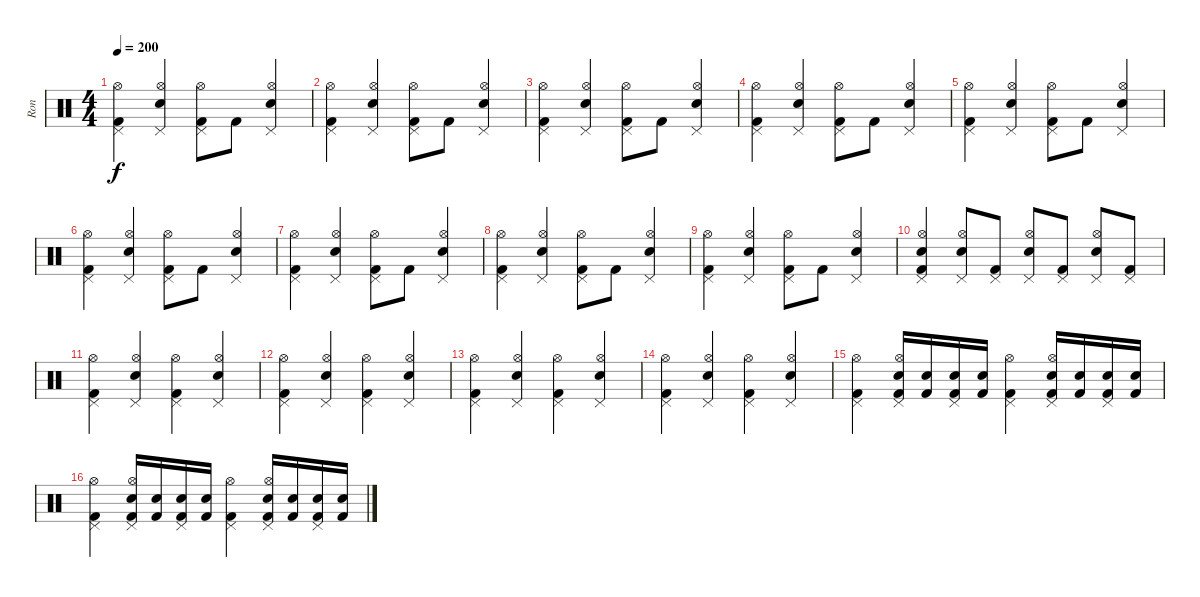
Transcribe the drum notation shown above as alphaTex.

\track ("Ron" "Ron") {instrument percussion}
\staff {score}
\articulation defaults
\ts (4 4)
\tempo 200
\clef neutral
\ks c
("Pedal Hi-Hat (hit)" "Kick (hit) 2" "Hi-Hat (open)").4{dy f} ("Electric Snare (hit)" "Pedal Hi-Hat (hit)" "Hi-Hat (open)").4 ("Pedal Hi-Hat (hit)" "Kick (hit) 2" "Hi-Hat (open)").8 "Kick (hit) 2".8 ("Electric Snare (hit)" "Pedal Hi-Hat (hit)" "Hi-Hat (open)").4 |
("Pedal Hi-Hat (hit)" "Kick (hit) 2" "Hi-Hat (open)").4 ("Electric Snare (hit)" "Pedal Hi-Hat (hit)" "Hi-Hat (open)").4 ("Pedal Hi-Hat (hit)" "Kick (hit) 2" "Hi-Hat (open)").8 "Kick (hit) 2".8 ("Electric Snare (hit)" "Pedal Hi-Hat (hit)" "Hi-Hat (open)").4 |
("Pedal Hi-Hat (hit)" "Kick (hit) 2" "Hi-Hat (open)").4 ("Electric Snare (hit)" "Pedal Hi-Hat (hit)" "Hi-Hat (open)").4 ("Pedal Hi-Hat (hit)" "Kick (hit) 2" "Hi-Hat (open)").8 "Kick (hit) 2".8 ("Electric Snare (hit)" "Pedal Hi-Hat (hit)" "Hi-Hat (open)").4 |
("Pedal Hi-Hat (hit)" "Kick (hit) 2" "Hi-Hat (open)").4 ("Electric Snare (hit)" "Pedal Hi-Hat (hit)" "Hi-Hat (open)").4 ("Pedal Hi-Hat (hit)" "Kick (hit) 2" "Hi-Hat (open)").8 "Kick (hit) 2".8 ("Electric Snare (hit)" "Pedal Hi-Hat (hit)" "Hi-Hat (open)").4 |
("Pedal Hi-Hat (hit)" "Kick (hit) 2" "Hi-Hat (open)").4 ("Electric Snare (hit)" "Pedal Hi-Hat (hit)" "Hi-Hat (open)").4 ("Pedal Hi-Hat (hit)" "Kick (hit) 2" "Hi-Hat (open)").8 "Kick (hit) 2".8 ("Electric Snare (hit)" "Pedal Hi-Hat (hit)" "Hi-Hat (open)").4 |
("Pedal Hi-Hat (hit)" "Kick (hit) 2" "Hi-Hat (open)").4 ("Electric Snare (hit)" "Pedal Hi-Hat (hit)" "Hi-Hat (open)").4 ("Pedal Hi-Hat (hit)" "Kick (hit) 2" "Hi-Hat (open)").8 "Kick (hit) 2".8 ("Electric Snare (hit)" "Pedal Hi-Hat (hit)" "Hi-Hat (open)").4 |
("Pedal Hi-Hat (hit)" "Kick (hit) 2" "Hi-Hat (open)").4 ("Electric Snare (hit)" "Pedal Hi-Hat (hit)" "Hi-Hat (open)").4 ("Pedal Hi-Hat (hit)" "Kick (hit) 2" "Hi-Hat (open)").8 "Kick (hit) 2".8 ("Electric Snare (hit)" "Pedal Hi-Hat (hit)" "Hi-Hat (open)").4 |
("Pedal Hi-Hat (hit)" "Kick (hit) 2" "Hi-Hat (open)").4 ("Electric Snare (hit)" "Pedal Hi-Hat (hit)" "Hi-Hat (open)").4 ("Pedal Hi-Hat (hit)" "Kick (hit) 2" "Hi-Hat (open)").8 "Kick (hit) 2".8 ("Electric Snare (hit)" "Pedal Hi-Hat (hit)" "Hi-Hat (open)").4 |
("Pedal Hi-Hat (hit)" "Kick (hit) 2" "Hi-Hat (open)").4 ("Electric Snare (hit)" "Pedal Hi-Hat (hit)" "Hi-Hat (open)").4 ("Pedal Hi-Hat (hit)" "Kick (hit) 2" "Hi-Hat (open)").8 "Kick (hit) 2".8 ("Electric Snare (hit)" "Pedal Hi-Hat (hit)" "Hi-Hat (open)").4 |
("Electric Snare (hit)" "Kick (hit) 2" "Pedal Hi-Hat (hit)" "Hi-Hat (open)").4 ("Electric Snare (hit)" "Pedal Hi-Hat (hit)" "Hi-Hat (open)").8 ("Kick (hit) 2" "Pedal Hi-Hat (hit)").8 ("Electric Snare (hit)" "Pedal Hi-Hat (hit)" "Hi-Hat (open)").8 ("Kick (hit) 2" "Pedal Hi-Hat (hit)").8 ("Electric Snare (hit)" "Pedal Hi-Hat (hit)" "Hi-Hat (open)").8 ("Kick (hit) 2" "Pedal Hi-Hat (hit)").8 |
("Pedal Hi-Hat (hit)" "Kick (hit) 2" "Hi-Hat (open)").4 ("Pedal Hi-Hat (hit)" "Electric Snare (hit)" "Hi-Hat (open)").4 ("Pedal Hi-Hat (hit)" "Kick (hit) 2" "Hi-Hat (open)").4 ("Pedal Hi-Hat (hit)" "Electric Snare (hit)" "Hi-Hat (open)").4 |
("Pedal Hi-Hat (hit)" "Kick (hit) 2" "Hi-Hat (open)").4 ("Pedal Hi-Hat (hit)" "Electric Snare (hit)" "Hi-Hat (open)").4 ("Pedal Hi-Hat (hit)" "Kick (hit) 2" "Hi-Hat (open)").4 ("Pedal Hi-Hat (hit)" "Electric Snare (hit)" "Hi-Hat (open)").4 |
("Pedal Hi-Hat (hit)" "Kick (hit) 2" "Hi-Hat (open)").4 ("Pedal Hi-Hat (hit)" "Electric Snare (hit)" "Hi-Hat (open)").4 ("Pedal Hi-Hat (hit)" "Kick (hit) 2" "Hi-Hat (open)").4 ("Pedal Hi-Hat (hit)" "Electric Snare (hit)" "Hi-Hat (open)").4 |
("Pedal Hi-Hat (hit)" "Kick (hit) 2" "Hi-Hat (open)").4 ("Pedal Hi-Hat (hit)" "Electric Snare (hit)" "Hi-Hat (open)").4 ("Pedal Hi-Hat (hit)" "Kick (hit) 2" "Hi-Hat (open)").4 ("Pedal Hi-Hat (hit)" "Electric Snare (hit)" "Hi-Hat (open)").4 |
("Pedal Hi-Hat (hit)" "Kick (hit) 2" "Hi-Hat (open)").4 ("Pedal Hi-Hat (hit)" "Electric Snare (hit)" "Kick (hit) 2" "Hi-Hat (open)").16 ("Kick (hit) 2" "Electric Snare (hit)").16 ("Pedal Hi-Hat (hit)" "Kick (hit) 2" "Electric Snare (hit)").16 ("Kick (hit) 2" "Electric Snare (hit)").16 ("Pedal Hi-Hat (hit)" "Kick (hit) 2" "Hi-Hat (open)").4 ("Pedal Hi-Hat (hit)" "Electric Snare (hit)" "Kick (hit) 2" "Hi-Hat (open)").16 ("Kick (hit) 2" "Electric Snare (hit)").16 ("Pedal Hi-Hat (hit)" "Kick (hit) 2" "Electric Snare (hit)").16 ("Kick (hit) 2" "Electric Snare (hit)").16 |
("Pedal Hi-Hat (hit)" "Kick (hit) 2" "Hi-Hat (open)").4 ("Pedal Hi-Hat (hit)" "Electric Snare (hit)" "Kick (hit) 2" "Hi-Hat (open)").16 ("Kick (hit) 2" "Electric Snare (hit)").16 ("Pedal Hi-Hat (hit)" "Kick (hit) 2" "Electric Snare (hit)").16 ("Kick (hit) 2" "Electric Snare (hit)").16 ("Pedal Hi-Hat (hit)" "Kick (hit) 2" "Hi-Hat (open)").4 ("Pedal Hi-Hat (hit)" "Electric Snare (hit)" "Kick (hit) 2" "Hi-Hat (open)").16 ("Kick (hit) 2" "Electric Snare (hit)").16 ("Pedal Hi-Hat (hit)" "Kick (hit) 2" "Electric Snare (hit)").16 ("Kick (hit) 2" "Electric Snare (hit)").16
